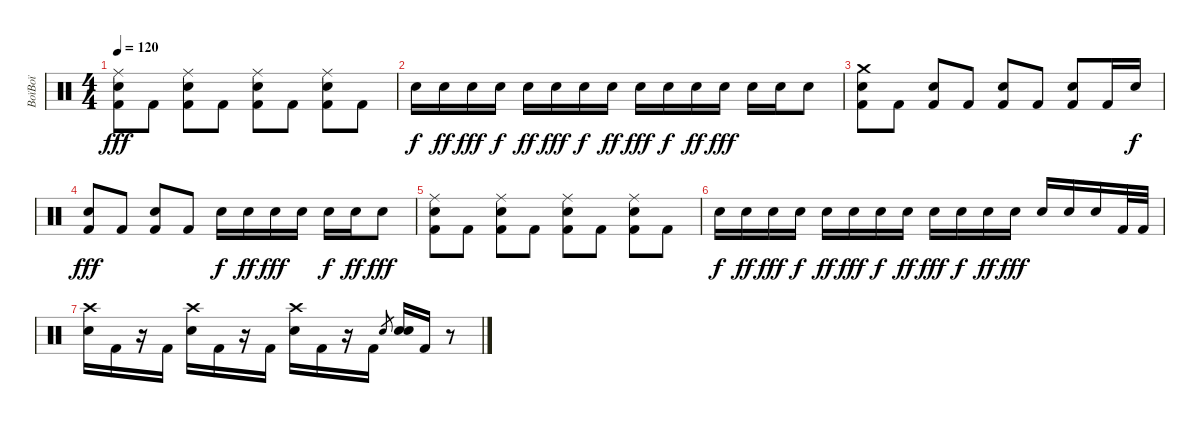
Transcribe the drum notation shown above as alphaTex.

\track ("BoïBoï" "BoïBoï") {instrument percussion}
\staff {score}
\articulation defaults
\ts (4 4)
\tempo 120
\clef neutral
\ks c
("Ride (middle)" "Electric Snare (hit)" "Kick (hit) 2").8{dy fff} "Kick (hit) 2".8 ("Ride (middle)" "Electric Snare (hit)" "Kick (hit) 2").8 "Kick (hit) 2".8 ("Ride (middle)" "Electric Snare (hit)" "Kick (hit) 2").8 "Kick (hit) 2".8 ("Ride (middle)" "Electric Snare (hit)" "Kick (hit) 2").8 "Kick (hit) 2".8 |
"Electric Snare (hit)".16{dy f} "Electric Snare (hit)".16{dy ff} "Electric Snare (hit)".16{dy fff} "Electric Snare (hit)".16{dy f} "Electric Snare (hit)".16{dy ff} "Electric Snare (hit)".16{dy fff} "Electric Snare (hit)".16{dy f} "Electric Snare (hit)".16{dy ff} "Electric Snare (hit)".16{dy fff} "Electric Snare (hit)".16{dy f} "Electric Snare (hit)".16{dy ff} "Electric Snare (hit)".16{dy fff} "Electric Snare (hit)".16 "Electric Snare (hit)".16 "Electric Snare (hit)".8 |
("Crash medium (hit)" "Electric Snare (hit)" "Kick (hit) 2").8 "Kick (hit) 2".8 ("Electric Snare (hit)" "Kick (hit) 2").8 "Kick (hit) 2".8 ("Electric Snare (hit)" "Kick (hit) 2").8 "Kick (hit) 2".8 ("Electric Snare (hit)" "Kick (hit) 2").8 "Kick (hit) 2".16 "Electric Snare (hit)".16{dy f} |
("Electric Snare (hit)" "Kick (hit) 2").8{dy fff} "Kick (hit) 2".8 ("Electric Snare (hit)" "Kick (hit) 2").8 "Kick (hit) 2".8 "Electric Snare (hit)".16{dy f} "Electric Snare (hit)".16{dy ff} "Electric Snare (hit)".16{dy fff} "Electric Snare (hit)".16 "Electric Snare (hit)".16{dy f} "Electric Snare (hit)".16{dy ff} "Electric Snare (hit)".8{dy fff} |
("Ride (middle)" "Electric Snare (hit)" "Kick (hit) 2").8 "Kick (hit) 2".8 ("Ride (middle)" "Electric Snare (hit)" "Kick (hit) 2").8 "Kick (hit) 2".8 ("Ride (middle)" "Electric Snare (hit)" "Kick (hit) 2").8 "Kick (hit) 2".8 ("Ride (middle)" "Electric Snare (hit)" "Kick (hit) 2").8 "Kick (hit) 2".8 |
"Electric Snare (hit)".16{dy f} "Electric Snare (hit)".16{dy ff} "Electric Snare (hit)".16{dy fff} "Electric Snare (hit)".16{dy f} "Electric Snare (hit)".16{dy ff} "Electric Snare (hit)".16{dy fff} "Electric Snare (hit)".16{dy f} "Electric Snare (hit)".16{dy ff} "Electric Snare (hit)".16{dy fff} "Electric Snare (hit)".16{dy f} "Electric Snare (hit)".16{dy ff} "Electric Snare (hit)".16{dy fff} "Electric Snare (hit)".16 "Electric Snare (hit)".16 "Electric Snare (hit)".16 "Kick (hit) 2".32 "Kick (hit) 2".32 |
("Crash high (hit)" "Electric Snare (hit)").16 "Kick (hit) 2".16 r.16 "Kick (hit) 2".16 ("Crash high (hit)" "Electric Snare (hit)").16 "Kick (hit) 2".16 r.16 "Kick (hit) 2".16 ("Crash high (hit)" "Electric Snare (hit)").16 "Kick (hit) 2".16 r.16 "Kick (hit) 2".16 "Electric Snare (hit)".8{gr} ("Electric Snare (hit)" "Snare (hit) 2").16 "Kick (hit) 2".16 r.8
